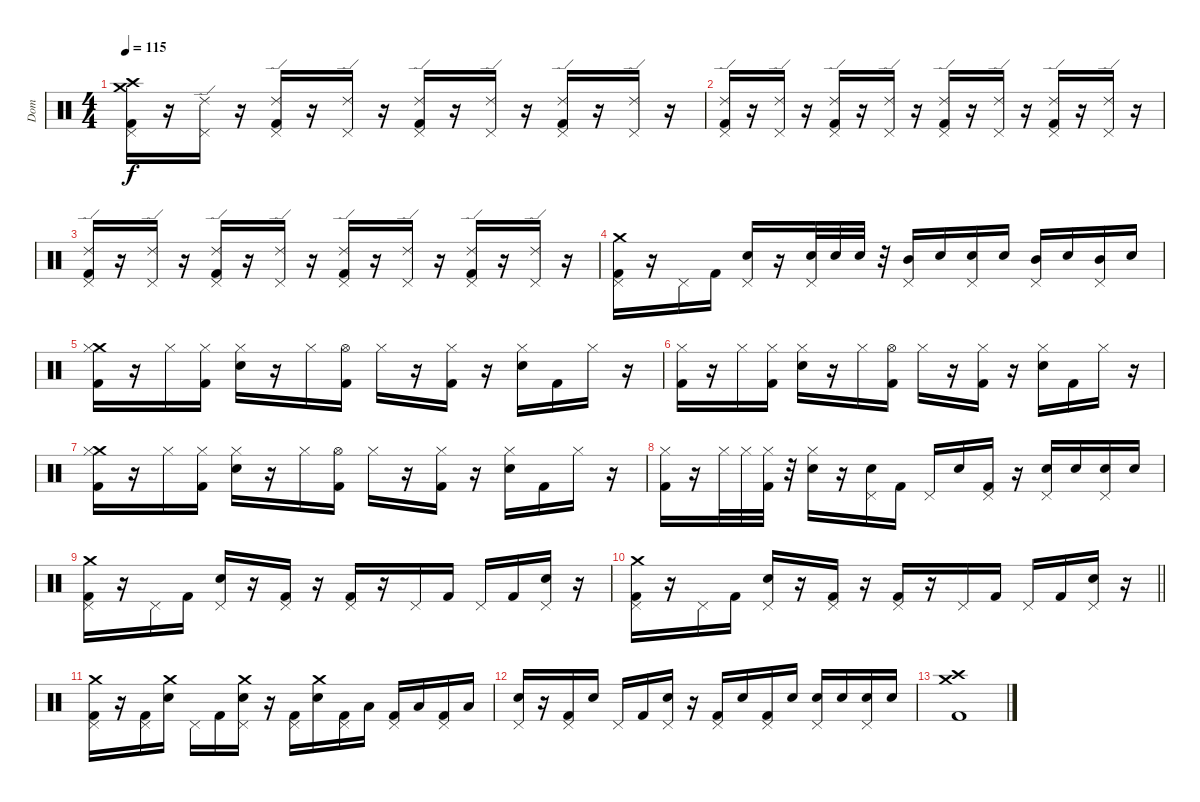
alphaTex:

\track ("Dom" "Dom") {instrument percussion}
\staff {score}
\articulation defaults
\ts (4 4)
\tempo 115
\clef neutral
\ks c
("Crash medium (hit)" "Crash high (hit)" "Pedal Hi-Hat (hit)" "Kick (hit) 2").16{dy f} r.16 ("Ride (edge) 2" "Pedal Hi-Hat (hit)").16 r.16 ("Ride (edge) 2" "Pedal Hi-Hat (hit)" "Kick (hit) 2").16 r.16 ("Ride (edge) 2" "Pedal Hi-Hat (hit)").16 r.16 ("Ride (edge) 2" "Pedal Hi-Hat (hit)" "Kick (hit) 2").16 r.16 ("Ride (edge) 2" "Pedal Hi-Hat (hit)").16 r.16 ("Ride (edge) 2" "Pedal Hi-Hat (hit)" "Kick (hit) 2").16 r.16 ("Ride (edge) 2" "Pedal Hi-Hat (hit)").16 r.16 |
("Ride (edge) 2" "Pedal Hi-Hat (hit)" "Kick (hit) 2").16 r.16 ("Ride (edge) 2" "Pedal Hi-Hat (hit)").16 r.16 ("Ride (edge) 2" "Pedal Hi-Hat (hit)" "Kick (hit) 2").16 r.16 ("Ride (edge) 2" "Pedal Hi-Hat (hit)").16 r.16 ("Ride (edge) 2" "Pedal Hi-Hat (hit)" "Kick (hit) 2").16 r.16 ("Ride (edge) 2" "Pedal Hi-Hat (hit)").16 r.16 ("Ride (edge) 2" "Pedal Hi-Hat (hit)" "Kick (hit) 2").16 r.16 ("Ride (edge) 2" "Pedal Hi-Hat (hit)").16 r.16 |
("Ride (edge) 2" "Pedal Hi-Hat (hit)" "Kick (hit) 2").16 r.16 ("Ride (edge) 2" "Pedal Hi-Hat (hit)").16 r.16 ("Ride (edge) 2" "Pedal Hi-Hat (hit)" "Kick (hit) 2").16 r.16 ("Ride (edge) 2" "Pedal Hi-Hat (hit)").16 r.16 ("Ride (edge) 2" "Pedal Hi-Hat (hit)" "Kick (hit) 2").16 r.16 ("Ride (edge) 2" "Pedal Hi-Hat (hit)").16 r.16 ("Ride (edge) 2" "Pedal Hi-Hat (hit)" "Kick (hit) 2").16 r.16 ("Ride (edge) 2" "Pedal Hi-Hat (hit)").16 r.16 |
("Crash medium (hit)" "Pedal Hi-Hat (hit)" "Kick (hit) 2").16 r.16 "Pedal Hi-Hat (hit)".16 "Kick (hit) 2".16 ("Snare (hit) 2" "Pedal Hi-Hat (hit)").16 r.16 ("Snare (hit) 2" "Pedal Hi-Hat (hit)").32 "Snare (hit) 2".32 "Snare (hit) 2".32 r.32 ("Mid Tom (hit)" "Pedal Hi-Hat (hit)").16 "Snare (hit) 2".16 ("Snare (hit) 2" "Pedal Hi-Hat (hit)").16 "Snare (hit) 2".16 ("Mid Tom (hit)" "Pedal Hi-Hat (hit)").16 "Snare (hit) 2".16 ("Mid Tom (hit)" "Pedal Hi-Hat (hit)").16 "Snare (hit) 2".16 |
("Crash medium (hit)" "Hi-Hat (closed)" "Kick (hit) 2").16 r.16 "Hi-Hat (closed)".16 ("Hi-Hat (closed)" "Kick (hit) 2").16 ("Snare (hit) 2" "Hi-Hat (closed)").16 r.16 "Hi-Hat (closed)".16 ("Hi-Hat (open)" "Kick (hit) 2").16 "Hi-Hat (closed)".16 r.16 ("Hi-Hat (closed)" "Kick (hit) 2").16 r.16 ("Snare (hit) 2" "Hi-Hat (closed)").16 "Kick (hit) 2".16 "Hi-Hat (closed)".16 r.16 |
("Hi-Hat (closed)" "Kick (hit) 2").16 r.16 "Hi-Hat (closed)".16 ("Hi-Hat (closed)" "Kick (hit) 2").16 ("Snare (hit) 2" "Hi-Hat (closed)").16 r.16 "Hi-Hat (closed)".16 ("Hi-Hat (open)" "Kick (hit) 2").16 "Hi-Hat (closed)".16 r.16 ("Hi-Hat (closed)" "Kick (hit) 2").16 r.16 ("Snare (hit) 2" "Hi-Hat (closed)").16 "Kick (hit) 2".16 "Hi-Hat (closed)".16 r.16 |
("Crash medium (hit)" "Hi-Hat (closed)" "Kick (hit) 2").16 r.16 "Hi-Hat (closed)".16 ("Hi-Hat (closed)" "Kick (hit) 2").16 ("Snare (hit) 2" "Hi-Hat (closed)").16 r.16 "Hi-Hat (closed)".16 ("Hi-Hat (open)" "Kick (hit) 2").16 "Hi-Hat (closed)".16 r.16 ("Hi-Hat (closed)" "Kick (hit) 2").16 r.16 ("Snare (hit) 2" "Hi-Hat (closed)").16 "Kick (hit) 2".16 "Hi-Hat (closed)".16 r.16 |
("Hi-Hat (closed)" "Kick (hit) 2").16 r.16 "Hi-Hat (closed)".32 "Hi-Hat (closed)".32 ("Hi-Hat (closed)" "Kick (hit) 2").32 r.32 ("Snare (hit) 2" "Hi-Hat (closed)").16 r.16 ("Snare (hit) 2" "Pedal Hi-Hat (hit)").16 "Kick (hit) 2".16 "Pedal Hi-Hat (hit)".16 "Snare (hit) 2".16 ("Pedal Hi-Hat (hit)" "Kick (hit) 2").16 r.16 ("Snare (hit) 2" "Pedal Hi-Hat (hit)").16 "Snare (hit) 2".16 ("Snare (hit) 2" "Pedal Hi-Hat (hit)").16 "Snare (hit) 2".16 |
("Crash medium (hit)" "Pedal Hi-Hat (hit)" "Kick (hit) 2").16 r.16 "Pedal Hi-Hat (hit)".16 "Kick (hit) 2".16 ("Snare (hit) 2" "Pedal Hi-Hat (hit)").16 r.16 ("Pedal Hi-Hat (hit)" "Kick (hit) 2").16 r.16 ("Pedal Hi-Hat (hit)" "Kick (hit) 2").16 r.16 "Pedal Hi-Hat (hit)".16 "Kick (hit) 2".16 "Pedal Hi-Hat (hit)".16 "Kick (hit) 2".16 ("Snare (hit) 2" "Pedal Hi-Hat (hit)").16 r.16 |
\barLineRight lightlight
("Crash medium (hit)" "Pedal Hi-Hat (hit)" "Kick (hit) 2").16 r.16 "Pedal Hi-Hat (hit)".16 "Kick (hit) 2".16 ("Snare (hit) 2" "Pedal Hi-Hat (hit)").16 r.16 ("Pedal Hi-Hat (hit)" "Kick (hit) 2").16 r.16 ("Pedal Hi-Hat (hit)" "Kick (hit) 2").16 r.16 "Pedal Hi-Hat (hit)".16 "Kick (hit) 2".16 "Pedal Hi-Hat (hit)".16 "Kick (hit) 2".16 ("Snare (hit) 2" "Pedal Hi-Hat (hit)").16 r.16 |
("Crash medium (hit)" "Pedal Hi-Hat (hit)" "Kick (hit) 2").16 r.16 ("Pedal Hi-Hat (hit)" "Kick (hit) 2").16 ("Crash medium (hit)" "Snare (hit) 2").16 "Pedal Hi-Hat (hit)".16 "Kick (hit) 2".16 ("Crash medium (hit)" "Snare (hit) 2" "Pedal Hi-Hat (hit)").16 r.16 ("Pedal Hi-Hat (hit)" "Kick (hit) 2").16 ("Crash medium (hit)" "Snare (hit) 2").16 ("Pedal Hi-Hat (hit)" "Kick (hit) 2").16 "Low Floor Tom (hit)".16 ("Pedal Hi-Hat (hit)" "Kick (hit) 2").16 "Low Floor Tom (hit)".16 ("Pedal Hi-Hat (hit)" "Kick (hit) 2").16 "Low Floor Tom (hit)".16 |
("Snare (hit) 2" "Pedal Hi-Hat (hit)").16 r.16 ("Pedal Hi-Hat (hit)" "Kick (hit) 2").16 "Snare (hit) 2".16 "Pedal Hi-Hat (hit)".16 "Kick (hit) 2".16 ("Snare (hit) 2" "Pedal Hi-Hat (hit)").16 r.16 ("Pedal Hi-Hat (hit)" "Kick (hit) 2").16 "Snare (hit) 2".16 ("Pedal Hi-Hat (hit)" "Kick (hit) 2").16 "Snare (hit) 2".16 ("Snare (hit) 2" "Pedal Hi-Hat (hit)").16 "Snare (hit) 2".16 ("Snare (hit) 2" "Pedal Hi-Hat (hit)").16 "Snare (hit) 2".16 |
("Crash medium (hit)" "Crash high (hit)" "Kick (hit) 2").1
